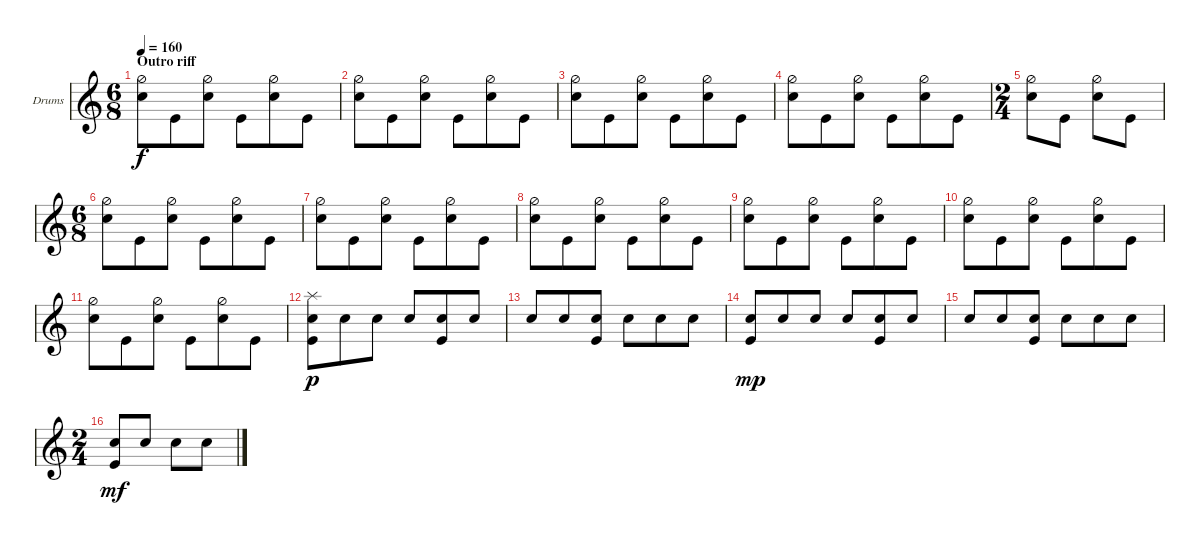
\defaultSystemsLayout 4
\bracketExtendMode groupsimilarinstruments
\firstSystemTrackNameOrientation horizontal
\otherSystemsTrackNameOrientation horizontal
\track ("Dom" "Drums") {instrument percussion}
\staff {score}
\articulation defaults
\ts (6 8)
\section ("" "Outro riff")
\tempo 160
\clef g2
\ks c
("Snare (hit) 2" "Hi-Hat (half)").8{dy f} "Kick (hit)".8 ("Snare (hit) 2" "Hi-Hat (half)").8 "Kick (hit)".8 ("Snare (hit) 2" "Hi-Hat (half)").8 "Kick (hit)".8 |
("Snare (hit) 2" "Hi-Hat (half)").8 "Kick (hit)".8 ("Snare (hit) 2" "Hi-Hat (half)").8 "Kick (hit)".8 ("Snare (hit) 2" "Hi-Hat (half)").8 "Kick (hit)".8 |
("Snare (hit) 2" "Hi-Hat (half)").8 "Kick (hit)".8 ("Snare (hit) 2" "Hi-Hat (half)").8 "Kick (hit)".8 ("Snare (hit) 2" "Hi-Hat (half)").8 "Kick (hit)".8 |
("Snare (hit) 2" "Hi-Hat (half)").8 "Kick (hit)".8 ("Snare (hit) 2" "Hi-Hat (half)").8 "Kick (hit)".8 ("Snare (hit) 2" "Hi-Hat (half)").8 "Kick (hit)".8 |
\ts (2 4)
("Snare (hit) 2" "Hi-Hat (half)").8 "Kick (hit)".8 ("Snare (hit) 2" "Hi-Hat (half)").8 "Kick (hit)".8 |
\ts (6 8)
("Snare (hit) 2" "Hi-Hat (half)").8 "Kick (hit)".8 ("Snare (hit) 2" "Hi-Hat (half)").8 "Kick (hit)".8 ("Snare (hit) 2" "Hi-Hat (half)").8 "Kick (hit)".8 |
("Snare (hit) 2" "Hi-Hat (half)").8 "Kick (hit)".8 ("Snare (hit) 2" "Hi-Hat (half)").8 "Kick (hit)".8 ("Snare (hit) 2" "Hi-Hat (half)").8 "Kick (hit)".8 |
("Snare (hit) 2" "Hi-Hat (half)").8 "Kick (hit)".8 ("Snare (hit) 2" "Hi-Hat (half)").8 "Kick (hit)".8 ("Snare (hit) 2" "Hi-Hat (half)").8 "Kick (hit)".8 |
("Snare (hit) 2" "Hi-Hat (half)").8 "Kick (hit)".8 ("Snare (hit) 2" "Hi-Hat (half)").8 "Kick (hit)".8 ("Snare (hit) 2" "Hi-Hat (half)").8 "Kick (hit)".8 |
("Snare (hit) 2" "Hi-Hat (half)").8 "Kick (hit)".8 ("Snare (hit) 2" "Hi-Hat (half)").8 "Kick (hit)".8 ("Snare (hit) 2" "Hi-Hat (half)").8 "Kick (hit)".8 |
("Snare (hit) 2" "Hi-Hat (half)").8 "Kick (hit)".8 ("Snare (hit) 2" "Hi-Hat (half)").8 "Kick (hit)".8 ("Snare (hit) 2" "Hi-Hat (half)").8 "Kick (hit)".8 |
("Kick (hit)" "Splash (hit)" "Snare (hit) 2").8{dy p} "Snare (hit) 2".8 "Snare (hit) 2".8 "Snare (hit) 2".8 ("Snare (hit) 2" "Kick (hit)").8 "Snare (hit) 2".8 |
"Snare (hit) 2".8 "Snare (hit) 2".8 ("Snare (hit) 2" "Kick (hit)").8 "Snare (hit) 2".8 "Snare (hit) 2".8 "Snare (hit) 2".8 |
("Snare (hit) 2" "Kick (hit)").8{dy mp} "Snare (hit) 2".8 "Snare (hit) 2".8 "Snare (hit) 2".8 ("Snare (hit) 2" "Kick (hit)").8 "Snare (hit) 2".8 |
"Snare (hit) 2".8 "Snare (hit) 2".8 ("Snare (hit) 2" "Kick (hit)").8 "Snare (hit) 2".8 "Snare (hit) 2".8 "Snare (hit) 2".8 |
\ts (2 4)
("Snare (hit) 2" "Kick (hit)").8{dy mf} "Snare (hit) 2".8 "Snare (hit) 2".8 "Snare (hit) 2".8
